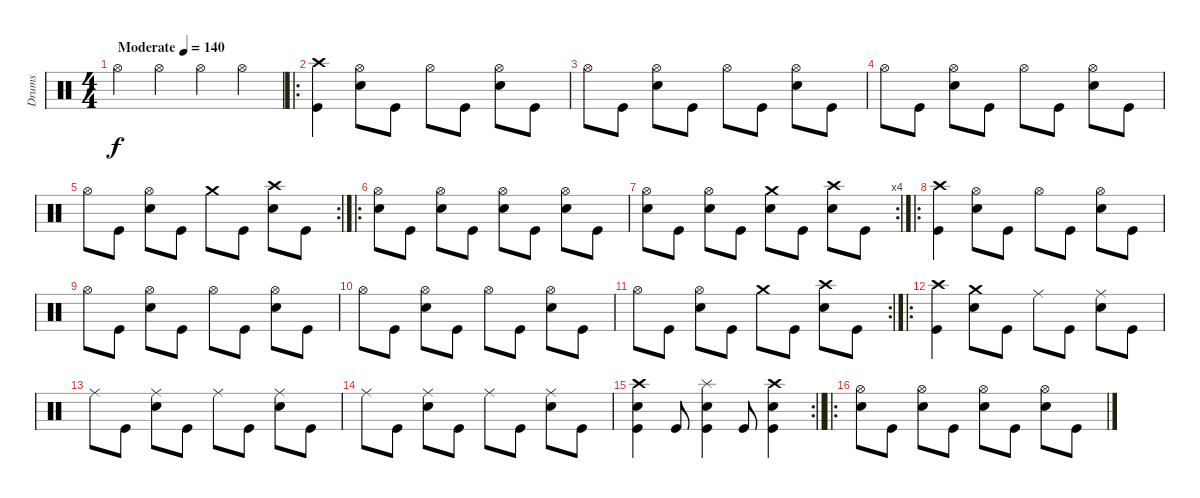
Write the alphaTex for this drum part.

\track ("Drums" "Drums") {instrument percussion}
\staff {score}
\articulation defaults
\ts (4 4)
\tempo (140 "Moderate")
\clef neutral
\ks c "Hi-Hat (open)".4{dy f} "Hi-Hat (open)".4 "Hi-Hat (open)".4 "Hi-Hat (open)".4
|
\ro
("Crash high (hit)" "Kick (hit)").4 ("Hi-Hat (open)" "Electric Snare (hit)").8 "Kick (hit)".8 "Hi-Hat (open)".8 "Kick (hit)".8 ("Hi-Hat (open)" "Electric Snare (hit)").8 "Kick (hit)".8 |
"Hi-Hat (open)".8 "Kick (hit)".8 ("Hi-Hat (open)" "Electric Snare (hit)").8 "Kick (hit)".8 "Hi-Hat (open)".8 "Kick (hit)".8 ("Hi-Hat (open)" "Electric Snare (hit)").8 "Kick (hit)".8 |
"Hi-Hat (open)".8 "Kick (hit)".8 ("Hi-Hat (open)" "Electric Snare (hit)").8 "Kick (hit)".8 "Hi-Hat (open)".8 "Kick (hit)".8 ("Hi-Hat (open)" "Electric Snare (hit)").8 "Kick (hit)".8 |
\rc 2 "Hi-Hat (open)".8 "Kick (hit)".8
("Hi-Hat (open)" "Electric Snare (hit)").8 "Kick (hit)".8 "Crash medium (hit)".8 "Kick (hit)".8 ("Crash high (hit)" "Electric Snare (hit)").8 "Kick (hit)".8 |
\ro
("Hi-Hat (open)" "Electric Snare (hit)").8 "Kick (hit)".8 ("Hi-Hat (open)" "Electric Snare (hit)").8 "Kick (hit)".8 ("Hi-Hat (open)" "Electric Snare (hit)").8 "Kick (hit)".8 ("Hi-Hat (open)" "Electric Snare (hit)").8 "Kick (hit)".8 |
\rc 4
("Hi-Hat (open)" "Electric Snare (hit)").8 "Kick (hit)".8 ("Hi-Hat (open)" "Electric Snare (hit)").8 "Kick (hit)".8 ("Crash medium (hit)" "Electric Snare (hit)").8 "Kick (hit)".8 ("Crash high (hit)" "Electric Snare (hit)").8 "Kick (hit)".8 |
\ro
("Crash high (hit)" "Kick (hit)").4 ("Hi-Hat (open)" "Electric Snare (hit)").8 "Kick (hit)".8 "Hi-Hat (open)".8 "Kick (hit)".8 ("Hi-Hat (open)" "Electric Snare (hit)").8 "Kick (hit)".8 |
"Hi-Hat (open)".8 "Kick (hit)".8 ("Hi-Hat (open)" "Electric Snare (hit)").8 "Kick (hit)".8 "Hi-Hat (open)".8 "Kick (hit)".8 ("Hi-Hat (open)" "Electric Snare (hit)").8 "Kick (hit)".8 |
"Hi-Hat (open)".8 "Kick (hit)".8 ("Hi-Hat (open)" "Electric Snare (hit)").8 "Kick (hit)".8 "Hi-Hat (open)".8 "Kick (hit)".8 ("Hi-Hat (open)" "Electric Snare (hit)").8 "Kick (hit)".8 |
\rc 2 "Hi-Hat (open)".8 "Kick (hit)".8
("Hi-Hat (open)" "Electric Snare (hit)").8 "Kick (hit)".8 "Crash medium (hit)".8 "Kick (hit)".8 ("Crash high (hit)" "Electric Snare (hit)").8 "Kick (hit)".8 |
\ro
("Crash high (hit)" "Kick (hit)").4 ("Crash medium (hit)" "Electric Snare (hit)").8 "Kick (hit)".8 "Ride (middle)".8 "Kick (hit)".8 ("Ride (middle)" "Electric Snare (hit)").8 "Kick (hit)".8 |
"Ride (middle)".8 "Kick (hit)".8 ("Ride (middle)" "Electric Snare (hit)").8 "Kick (hit)".8 "Ride (middle)".8 "Kick (hit)".8 ("Ride (middle)" "Electric Snare (hit)").8 "Kick (hit)".8 |
"Ride (middle)".8 "Kick (hit)".8 ("Ride (middle)" "Electric Snare (hit)").8 "Kick (hit)".8 "Ride (middle)".8 "Kick (hit)".8 ("Ride (middle)" "Electric Snare (hit)").8 "Kick (hit)".8 |
\rc 2
\barLineRight lightlight
("Crash high (hit)" "Electric Snare (hit)" "Kick (hit)").4 "Kick (hit)".8 ("Splash (hit)" "Electric Snare (hit)" "Kick (hit)").4 "Kick (hit)".8 ("Crash high (hit)" "Electric Snare (hit)" "Kick (hit)").4 |
\ro
("Hi-Hat (open)" "Electric Snare (hit)").8 "Kick (hit)".8 ("Hi-Hat (open)" "Electric Snare (hit)").8 "Kick (hit)".8 ("Hi-Hat (open)" "Electric Snare (hit)").8 "Kick (hit)".8 ("Hi-Hat (open)" "Electric Snare (hit)").8 "Kick (hit)".8
